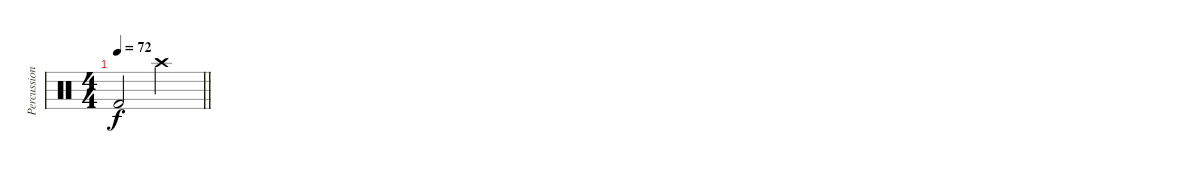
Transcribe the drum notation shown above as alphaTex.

\track ("Percussion" "Percussion") {instrument percussion}
\staff {score}
\articulation defaults
\ts (4 4)
\tempo 72
\clef neutral
\barLineRight lightlight
\ks c "Kick (hit) 2".2{dy f} "Crash high (hit)".2
